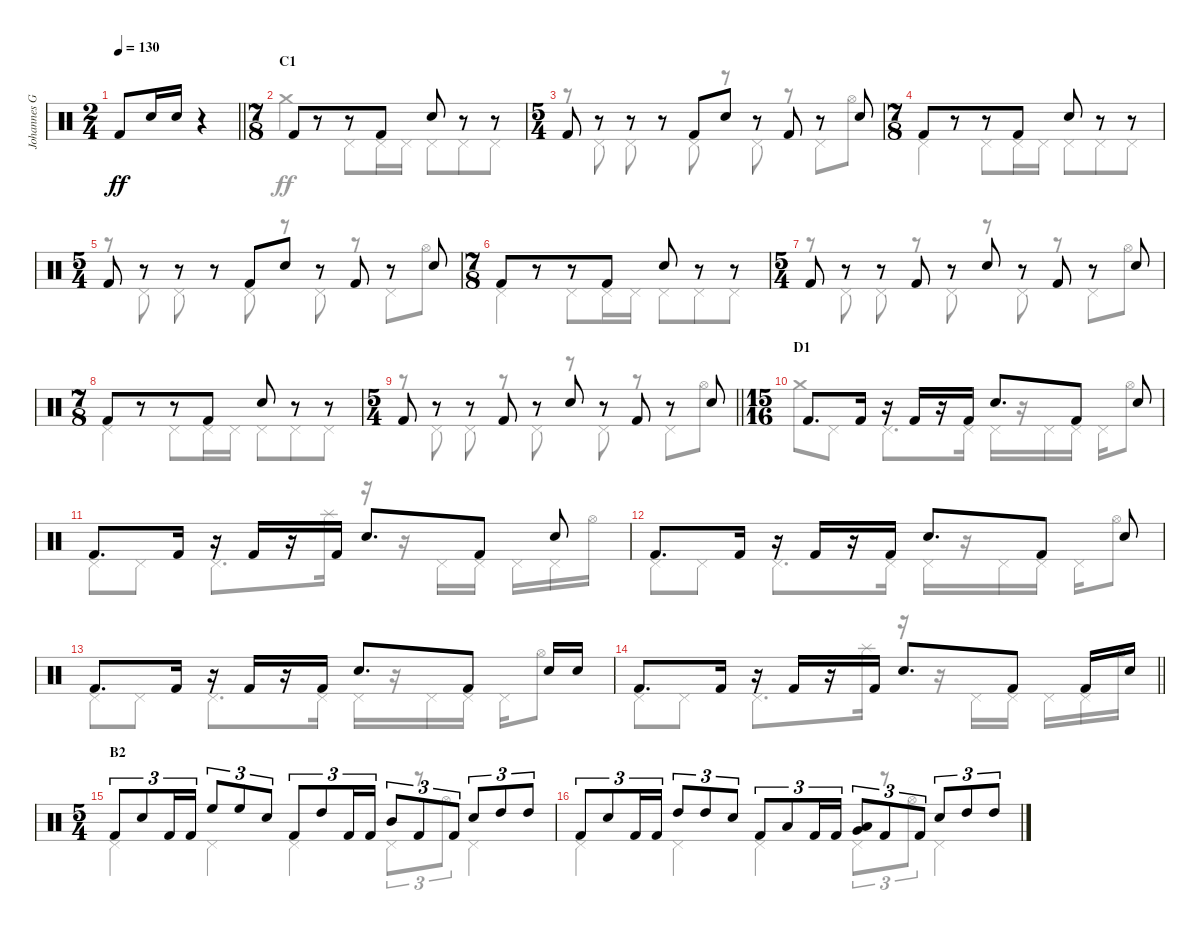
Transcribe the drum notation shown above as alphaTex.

\track ("Johannes Grossmann" "Johannes G") {instrument percussion}
\staff {score}
\articulation defaults
\voice
\ts (2 4)
\tempo 130
\clef neutral
\barLineRight lightlight
\ks c "Kick (hit) 2".8{dy ff} "Snare (hit) 2".16 "Snare (hit) 2".16
r.4 |
\ts (7 8)
\section ("" "C1")
"Kick (hit) 2".8 r.8 r.8 "Kick (hit) 2".8 "Snare (hit) 2".8 r.8 r.8 |
\ts (5 4)
"Kick (hit) 2".8 r.8 r.8 r.8 "Kick (hit) 2".8 "Snare (hit) 2".8 r.8 "Kick (hit) 2".8 r.8 "Snare (hit) 2".8 |
\ts (7 8)
"Kick (hit) 2".8 r.8 r.8 "Kick (hit) 2".8 "Snare (hit) 2".8 r.8 r.8 |
\ts (5 4)
"Kick (hit) 2".8 r.8 r.8 r.8 "Kick (hit) 2".8 "Snare (hit) 2".8 r.8 "Kick (hit) 2".8 r.8 "Snare (hit) 2".8 |
\ts (7 8)
"Kick (hit) 2".8 r.8 r.8 "Kick (hit) 2".8 "Snare (hit) 2".8 r.8 r.8 |
\ts (5 4)
"Kick (hit) 2".8 r.8 r.8 "Kick (hit) 2".8 r.8 "Snare (hit) 2".8 r.8 "Kick (hit) 2".8 r.8 "Snare (hit) 2".8 |
\ts (7 8)
"Kick (hit) 2".8 r.8 r.8 "Kick (hit) 2".8 "Snare (hit) 2".8 r.8 r.8 |
\ts (5 4)
\barLineRight lightlight "Kick (hit) 2".8
r.8 r.8 "Kick (hit) 2".8 r.8 "Snare (hit) 2".8 r.8 "Kick (hit) 2".8 r.8 "Snare (hit) 2".8 |
\ts (15 16)
\section ("" "D1")
"Kick (hit) 2".8{d} "Kick (hit) 2".16 r.16 "Kick (hit) 2".16 r.16 "Kick (hit) 2".16 "Snare (hit) 2".8{d} "Kick (hit) 2".8 "Snare (hit) 2".8 |
"Kick (hit) 2".8{d} "Kick (hit) 2".16 r.16 "Kick (hit) 2".16 r.16 "Kick (hit) 2".16 "Snare (hit) 2".8{d} "Kick (hit) 2".8 "Snare (hit) 2".8 |
"Kick (hit) 2".8{d} "Kick (hit) 2".16 r.16 "Kick (hit) 2".16 r.16 "Kick (hit) 2".16 "Snare (hit) 2".8{d} "Kick (hit) 2".8 "Snare (hit) 2".8 |
"Kick (hit) 2".8{d} "Kick (hit) 2".16 r.16 "Kick (hit) 2".16 r.16 "Kick (hit) 2".16 "Snare (hit) 2".8{d} "Kick (hit) 2".8 "Snare (hit) 2".16 "Snare (hit) 2".16 |
\barLineRight lightlight "Kick (hit) 2".8{d} "Kick (hit) 2".16
r.16 "Kick (hit) 2".16 r.16 "Kick (hit) 2".16 "Snare (hit) 2".8{d} "Kick (hit) 2".8 "Kick (hit) 2".16 "Snare (hit) 2".16 |
\ts (5 4)
\section ("" "B2")
"Kick (hit) 2".8{tu (3 2)} "Snare (hit) 2".8{tu (3 2)} "Kick (hit) 2".16{tu (3 2)} "Kick (hit) 2".16{tu (3 2)} "High Floor Tom (hit)".8{tu (3 2)} "High Floor Tom (hit)".8{tu (3 2)} "Snare (hit) 2".8{tu (3 2)} "Kick (hit) 2".8{tu (3 2)} "High Tom (hit)".8{tu (3 2)} "Kick (hit) 2".16{tu (3 2)} "Kick (hit) 2".16{tu (3 2)} "Mid Tom (hit)".8{tu (3 2)} "Kick (hit) 2".8{tu (3 2)} "Kick (hit) 2".8{tu (3 2)} "Snare (hit) 2".8{tu (3 2)} "High Tom (hit)".8{tu (3 2)} "High Tom (hit)".8{tu (3 2)} |
"Kick (hit) 2".8{tu (3 2)} "Snare (hit) 2".8{tu (3 2)} "Kick (hit) 2".16{tu (3 2)} "Kick (hit) 2".16{tu (3 2)} "High Tom (hit)".8{tu (3 2)} "High Tom (hit)".8{tu (3 2)} "Snare (hit) 2".8{tu (3 2)} "Kick (hit) 2".8{tu (3 2)} "Low Tom (hit)".8{tu (3 2)} "Kick (hit) 2".16{tu (3 2)} "Kick (hit) 2".16{tu (3 2)} ("Low Floor Tom (hit)" "Very Low Tom (hit)").8{tu (3 2)} "Kick (hit) 2".8{tu (3 2)} "Kick (hit) 2".8{tu (3 2)} "Snare (hit) 2".8{tu (3 2)} "High Tom (hit)".8{tu (3 2)} "High Tom (hit)".8{tu (3 2)}
\voice
\clef neutral
\ottava regular
\simile none
\barLineRight lightlight
\ks c
|
"Crash medium (hit)".4 "Pedal Hi-Hat (hit)".8 "Pedal Hi-Hat (hit)".16 "Pedal Hi-Hat (hit)".16 "Pedal Hi-Hat (hit)".8 "Pedal Hi-Hat (hit)".8 "Pedal Hi-Hat (hit)".8 |
r.8 "Pedal Hi-Hat (hit)".8 "Pedal Hi-Hat (hit)".8 r.8 "Pedal Hi-Hat (hit)".8 r.8 "Pedal Hi-Hat (hit)".8 r.8 "Pedal Hi-Hat (hit)".8 "Hi-Hat (open)".8 |
"Pedal Hi-Hat (hit)".4 "Pedal Hi-Hat (hit)".8 "Pedal Hi-Hat (hit)".16 "Pedal Hi-Hat (hit)".16 "Pedal Hi-Hat (hit)".8 "Pedal Hi-Hat (hit)".8 "Pedal Hi-Hat (hit)".8 |
r.8 "Pedal Hi-Hat (hit)".8 "Pedal Hi-Hat (hit)".8 r.8 "Pedal Hi-Hat (hit)".8 r.8 "Pedal Hi-Hat (hit)".8 r.8 "Pedal Hi-Hat (hit)".8 "Hi-Hat (open)".8 |
"Pedal Hi-Hat (hit)".4 "Pedal Hi-Hat (hit)".8 "Pedal Hi-Hat (hit)".16 "Pedal Hi-Hat (hit)".16 "Pedal Hi-Hat (hit)".8 "Pedal Hi-Hat (hit)".8 "Pedal Hi-Hat (hit)".8 |
r.8 "Pedal Hi-Hat (hit)".8 "Pedal Hi-Hat (hit)".8 r.8 "Pedal Hi-Hat (hit)".8 r.8 "Pedal Hi-Hat (hit)".8 r.8 "Pedal Hi-Hat (hit)".8 "Hi-Hat (open)".8 |
"Pedal Hi-Hat (hit)".4 "Pedal Hi-Hat (hit)".8 "Pedal Hi-Hat (hit)".16 "Pedal Hi-Hat (hit)".16 "Pedal Hi-Hat (hit)".8 "Pedal Hi-Hat (hit)".8 "Pedal Hi-Hat (hit)".8 |
\barLineRight lightlight
r.8 "Pedal Hi-Hat (hit)".8 "Pedal Hi-Hat (hit)".8 r.8 "Pedal Hi-Hat (hit)".8 r.8 "Pedal Hi-Hat (hit)".8 r.8 "Pedal Hi-Hat (hit)".8 "Hi-Hat (open)".8 |
"Crash medium (hit)".8 "Pedal Hi-Hat (hit)".8 "Pedal Hi-Hat (hit)".8{d} "Pedal Hi-Hat (hit)".16 "Pedal Hi-Hat (hit)".16 r.16 "Pedal Hi-Hat (hit)".16 "Pedal Hi-Hat (hit)".16 "Pedal Hi-Hat (hit)".16 "Hi-Hat (open)".8 |
"Pedal Hi-Hat (hit)".8 "Pedal Hi-Hat (hit)".8 "Pedal Hi-Hat (hit)".8{d} "Splash (hit)".16 r.16 r.16 "Pedal Hi-Hat (hit)".16 "Pedal Hi-Hat (hit)".16 "Pedal Hi-Hat (hit)".16 "Pedal Hi-Hat (hit)".16 "Hi-Hat (open)".16 |
"Pedal Hi-Hat (hit)".8 "Pedal Hi-Hat (hit)".8 "Pedal Hi-Hat (hit)".8{d} "Pedal Hi-Hat (hit)".16 "Pedal Hi-Hat (hit)".16 r.16 "Pedal Hi-Hat (hit)".16 "Pedal Hi-Hat (hit)".16 "Pedal Hi-Hat (hit)".16 "Hi-Hat (open)".8 |
"Pedal Hi-Hat (hit)".8 "Pedal Hi-Hat (hit)".8 "Pedal Hi-Hat (hit)".8{d} "Pedal Hi-Hat (hit)".16 "Pedal Hi-Hat (hit)".16 r.16 "Pedal Hi-Hat (hit)".16 "Pedal Hi-Hat (hit)".16 "Pedal Hi-Hat (hit)".16 "Hi-Hat (open)".8 |
\barLineRight lightlight "Pedal Hi-Hat (hit)".8 "Pedal Hi-Hat (hit)".8 "Pedal Hi-Hat (hit)".8{d} "Splash (hit)".16
r.16 r.16 "Pedal Hi-Hat (hit)".16 "Pedal Hi-Hat (hit)".16 "Pedal Hi-Hat (hit)".16 "Pedal Hi-Hat (hit)".16 "Hi-Hat (open)".16 |
"Pedal Hi-Hat (hit)".4 "Pedal Hi-Hat (hit)".4 "Pedal Hi-Hat (hit)".4 "Pedal Hi-Hat (hit)".8{tu (3 2)} r.8{tu (3 2)} "Hi-Hat (open)".8{tu (3 2)} "Pedal Hi-Hat (hit)".4 |
"Pedal Hi-Hat (hit)".4 "Pedal Hi-Hat (hit)".4 "Pedal Hi-Hat (hit)".4 "Pedal Hi-Hat (hit)".8{tu (3 2)} r.8{tu (3 2)} "Hi-Hat (open)".8{tu (3 2)} "Pedal Hi-Hat (hit)".4
